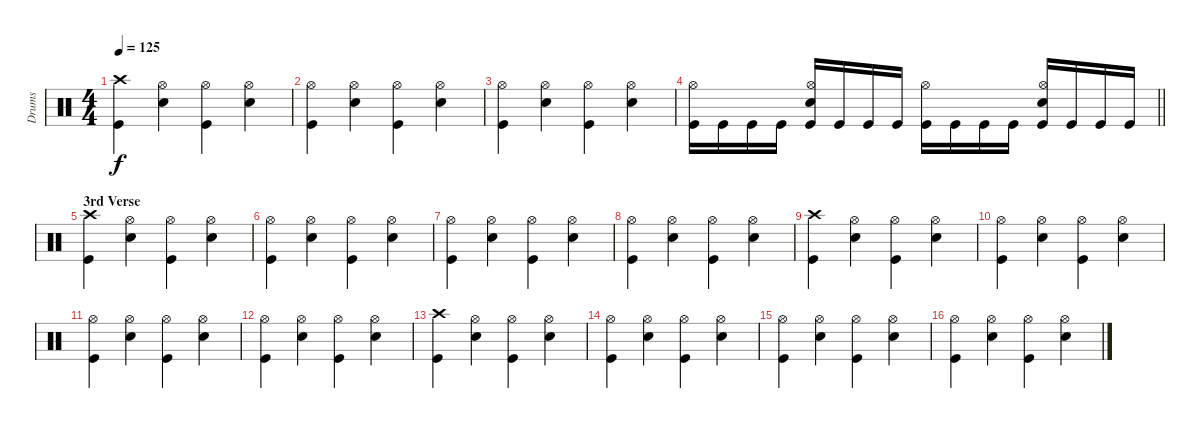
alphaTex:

\track ("Drums" "Drums") {instrument percussion}
\staff {score}
\articulation defaults
\ts (4 4)
\tempo 125
\clef neutral
\ks c
("Crash high (hit)" "Kick (hit)").4{dy f} ("Hi-Hat (open)" "Electric Snare (hit)").4 ("Hi-Hat (open)" "Kick (hit)").4 ("Hi-Hat (open)" "Electric Snare (hit)").4 |
("Hi-Hat (open)" "Kick (hit)").4 ("Hi-Hat (open)" "Electric Snare (hit)").4 ("Hi-Hat (open)" "Kick (hit)").4 ("Hi-Hat (open)" "Electric Snare (hit)").4 |
("Hi-Hat (open)" "Kick (hit)").4 ("Hi-Hat (open)" "Electric Snare (hit)").4 ("Hi-Hat (open)" "Kick (hit)").4 ("Hi-Hat (open)" "Electric Snare (hit)").4 |
\barLineRight lightlight
("Hi-Hat (open)" "Kick (hit)").16 "Kick (hit)".16 "Kick (hit)".16 "Kick (hit)".16 ("Hi-Hat (open)" "Electric Snare (hit)" "Kick (hit)").16 "Kick (hit)".16 "Kick (hit)".16 "Kick (hit)".16 ("Hi-Hat (open)" "Kick (hit)").16 "Kick (hit)".16 "Kick (hit)".16 "Kick (hit)".16 ("Hi-Hat (open)" "Electric Snare (hit)" "Kick (hit)").16 "Kick (hit)".16 "Kick (hit)".16 "Kick (hit)".16 |
\section ("" "3rd Verse")
("Crash high (hit)" "Kick (hit)").4 ("Hi-Hat (open)" "Electric Snare (hit)").4 ("Hi-Hat (open)" "Kick (hit)").4 ("Hi-Hat (open)" "Electric Snare (hit)").4 |
("Hi-Hat (open)" "Kick (hit)").4 ("Hi-Hat (open)" "Electric Snare (hit)").4 ("Hi-Hat (open)" "Kick (hit)").4 ("Hi-Hat (open)" "Electric Snare (hit)").4 |
("Hi-Hat (open)" "Kick (hit)").4 ("Hi-Hat (open)" "Electric Snare (hit)").4 ("Hi-Hat (open)" "Kick (hit)").4 ("Hi-Hat (open)" "Electric Snare (hit)").4 |
("Hi-Hat (open)" "Kick (hit)").4 ("Hi-Hat (open)" "Electric Snare (hit)").4 ("Hi-Hat (open)" "Kick (hit)").4 ("Hi-Hat (open)" "Electric Snare (hit)").4 |
("Crash high (hit)" "Kick (hit)").4 ("Hi-Hat (open)" "Electric Snare (hit)").4 ("Hi-Hat (open)" "Kick (hit)").4 ("Hi-Hat (open)" "Electric Snare (hit)").4 |
("Hi-Hat (open)" "Kick (hit)").4 ("Hi-Hat (open)" "Electric Snare (hit)").4 ("Hi-Hat (open)" "Kick (hit)").4 ("Hi-Hat (open)" "Electric Snare (hit)").4 |
("Hi-Hat (open)" "Kick (hit)").4 ("Hi-Hat (open)" "Electric Snare (hit)").4 ("Hi-Hat (open)" "Kick (hit)").4 ("Hi-Hat (open)" "Electric Snare (hit)").4 |
("Hi-Hat (open)" "Kick (hit)").4 ("Hi-Hat (open)" "Electric Snare (hit)").4 ("Hi-Hat (open)" "Kick (hit)").4 ("Hi-Hat (open)" "Electric Snare (hit)").4 |
("Crash high (hit)" "Kick (hit)").4 ("Hi-Hat (open)" "Electric Snare (hit)").4 ("Hi-Hat (open)" "Kick (hit)").4 ("Hi-Hat (open)" "Electric Snare (hit)").4 |
("Hi-Hat (open)" "Kick (hit)").4 ("Hi-Hat (open)" "Electric Snare (hit)").4 ("Hi-Hat (open)" "Kick (hit)").4 ("Hi-Hat (open)" "Electric Snare (hit)").4 |
("Hi-Hat (open)" "Kick (hit)").4 ("Hi-Hat (open)" "Electric Snare (hit)").4 ("Hi-Hat (open)" "Kick (hit)").4 ("Hi-Hat (open)" "Electric Snare (hit)").4 |
("Hi-Hat (open)" "Kick (hit)").4 ("Hi-Hat (open)" "Electric Snare (hit)").4 ("Hi-Hat (open)" "Kick (hit)").4 ("Hi-Hat (open)" "Electric Snare (hit)").4
